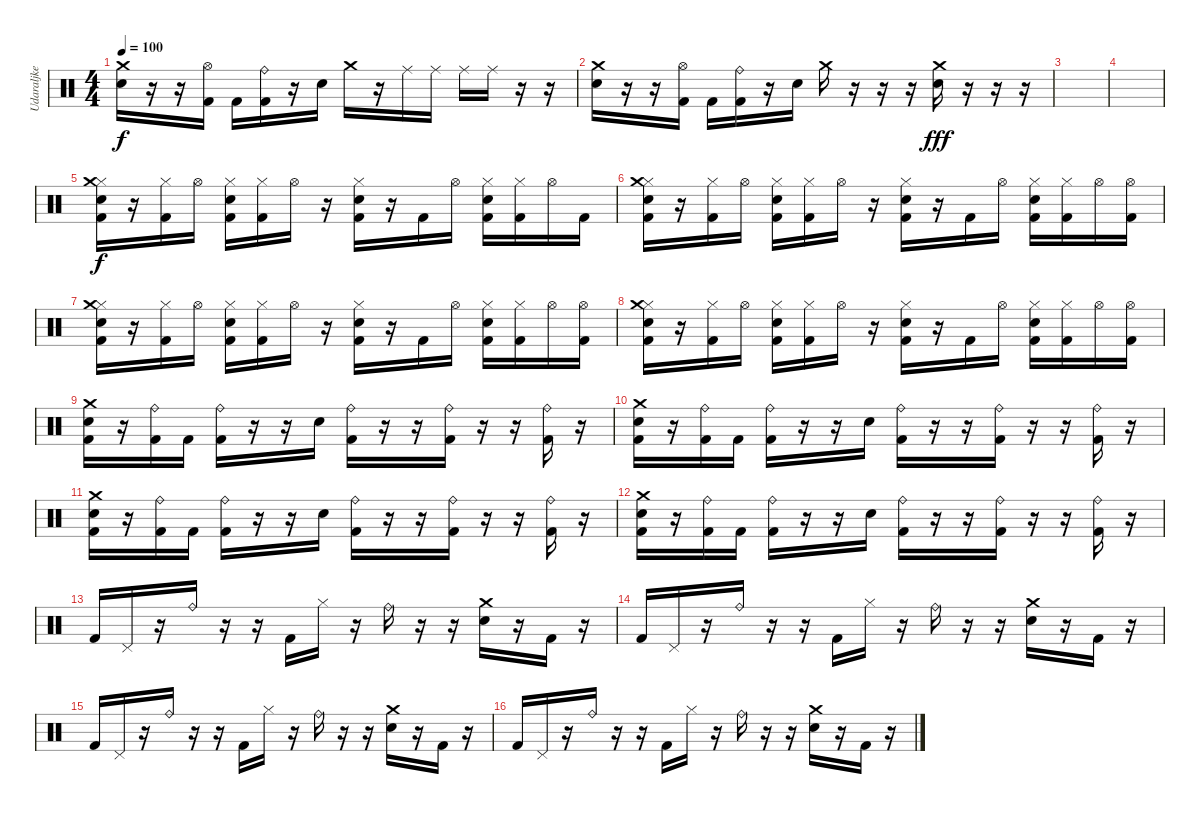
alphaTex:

\track ("Udaraljke" "Udaraljke") {instrument percussion}
\staff {score}
\articulation defaults
\ts (4 4)
\tempo 100
\clef neutral
\ks c
("Crash medium (hit)" "Snare (hit) 2").16{dy f} r.16 r.16 ("Hi-Hat (open)" "Kick (hit) 2").16 "Kick (hit) 2".16 ("Ride (bell)" "Kick (hit) 2").16 r.16 "Snare (hit) 2".16 "Crash medium (hit)".16 r.16 "Ride (middle)".16 "Ride (middle)".16 "Ride (middle)".16 "Ride (middle)".16 r.16 r.16 |
("Crash medium (hit)" "Snare (hit) 2").16 r.16 r.16 ("Hi-Hat (open)" "Kick (hit) 2").16 "Kick (hit) 2".16 ("Ride (bell)" "Kick (hit) 2").16 r.16 "Snare (hit) 2".16 "Crash medium (hit)".16 r.16 r.16 r.16 ("Crash medium (hit)" "Snare (hit) 2").16{dy fff} r.16 r.16 r.16 |
|
|
("Kick (hit) 2" "Snare (hit) 2" "Hi-Hat (closed)" "Crash medium (hit)").16{dy f} r.16 ("Kick (hit) 2" "Hi-Hat (closed)").16 "Hi-Hat (open)".16 ("Kick (hit) 2" "Snare (hit) 2" "Hi-Hat (closed)").16 ("Kick (hit) 2" "Hi-Hat (closed)").16 "Hi-Hat (open)".16 r.16 ("Kick (hit) 2" "Snare (hit) 2" "Hi-Hat (closed)").16 r.16 "Kick (hit) 2".16 "Hi-Hat (open)".16 ("Kick (hit) 2" "Snare (hit) 2" "Hi-Hat (closed)").16 ("Kick (hit) 2" "Hi-Hat (closed)").16 "Hi-Hat (open)".16 "Kick (hit) 2".16 |
("Kick (hit) 2" "Snare (hit) 2" "Hi-Hat (closed)" "Crash medium (hit)").16 r.16 ("Kick (hit) 2" "Hi-Hat (closed)").16 "Hi-Hat (open)".16 ("Kick (hit) 2" "Snare (hit) 2" "Hi-Hat (closed)").16 ("Kick (hit) 2" "Hi-Hat (closed)").16 "Hi-Hat (open)".16 r.16 ("Kick (hit) 2" "Snare (hit) 2" "Hi-Hat (closed)").16 r.16 "Kick (hit) 2".16 "Hi-Hat (open)".16 ("Kick (hit) 2" "Snare (hit) 2" "Hi-Hat (closed)").16 ("Kick (hit) 2" "Hi-Hat (closed)").16 "Hi-Hat (open)".16 ("Kick (hit) 2" "Hi-Hat (open)").16 |
("Kick (hit) 2" "Snare (hit) 2" "Hi-Hat (closed)" "Crash medium (hit)").16 r.16 ("Kick (hit) 2" "Hi-Hat (closed)").16 "Hi-Hat (open)".16 ("Kick (hit) 2" "Snare (hit) 2" "Hi-Hat (closed)").16 ("Kick (hit) 2" "Hi-Hat (closed)").16 "Hi-Hat (open)".16 r.16 ("Kick (hit) 2" "Snare (hit) 2" "Hi-Hat (closed)").16 r.16 "Kick (hit) 2".16 "Hi-Hat (open)".16 ("Kick (hit) 2" "Snare (hit) 2" "Hi-Hat (closed)").16 ("Kick (hit) 2" "Hi-Hat (closed)").16 "Hi-Hat (open)".16 ("Kick (hit) 2" "Hi-Hat (open)").16 |
("Kick (hit) 2" "Snare (hit) 2" "Hi-Hat (closed)" "Crash medium (hit)").16 r.16 ("Kick (hit) 2" "Hi-Hat (closed)").16 "Hi-Hat (open)".16 ("Kick (hit) 2" "Snare (hit) 2" "Hi-Hat (closed)").16 ("Kick (hit) 2" "Hi-Hat (closed)").16 "Hi-Hat (open)".16 r.16 ("Kick (hit) 2" "Snare (hit) 2" "Hi-Hat (closed)").16 r.16 "Kick (hit) 2".16 "Hi-Hat (open)".16 ("Kick (hit) 2" "Snare (hit) 2" "Hi-Hat (closed)").16 ("Kick (hit) 2" "Hi-Hat (closed)").16 "Hi-Hat (open)".16 ("Kick (hit) 2" "Hi-Hat (open)").16 |
("Snare (hit) 2" "Crash medium (hit)" "Kick (hit) 2").16 r.16 ("Ride (bell)" "Kick (hit) 2").16 "Kick (hit) 2".16 ("Ride (bell)" "Kick (hit) 2").16 r.16 r.16 "Snare (hit) 2".16 ("Ride (bell)" "Kick (hit) 2").16 r.16 r.16 ("Ride (bell)" "Kick (hit) 2").16 r.16 r.16 ("Ride (bell)" "Kick (hit) 2").16 r.16 |
("Snare (hit) 2" "Crash medium (hit)" "Kick (hit) 2").16 r.16 ("Ride (bell)" "Kick (hit) 2").16 "Kick (hit) 2".16 ("Ride (bell)" "Kick (hit) 2").16 r.16 r.16 "Snare (hit) 2".16 ("Ride (bell)" "Kick (hit) 2").16 r.16 r.16 ("Ride (bell)" "Kick (hit) 2").16 r.16 r.16 ("Ride (bell)" "Kick (hit) 2").16 r.16 |
("Snare (hit) 2" "Crash medium (hit)" "Kick (hit) 2").16 r.16 ("Ride (bell)" "Kick (hit) 2").16 "Kick (hit) 2".16 ("Ride (bell)" "Kick (hit) 2").16 r.16 r.16 "Snare (hit) 2".16 ("Ride (bell)" "Kick (hit) 2").16 r.16 r.16 ("Ride (bell)" "Kick (hit) 2").16 r.16 r.16 ("Ride (bell)" "Kick (hit) 2").16 r.16 |
("Snare (hit) 2" "Crash medium (hit)" "Kick (hit) 2").16 r.16 ("Ride (bell)" "Kick (hit) 2").16 "Kick (hit) 2".16 ("Ride (bell)" "Kick (hit) 2").16 r.16 r.16 "Snare (hit) 2".16 ("Ride (bell)" "Kick (hit) 2").16 r.16 r.16 ("Ride (bell)" "Kick (hit) 2").16 r.16 r.16 ("Ride (bell)" "Kick (hit) 2").16 r.16 |
"Kick (hit) 2".16 "Pedal Hi-Hat (hit)".16 r.16 "Ride (bell)".16 r.16 r.16 "Kick (hit) 2".16 "Hi-Hat (closed)".16 r.16 "Ride (bell)".16 r.16 r.16 ("Snare (hit) 2" "Crash medium (hit)").16 r.16 "Kick (hit) 2".16 r.16 |
"Kick (hit) 2".16 "Pedal Hi-Hat (hit)".16 r.16 "Ride (bell)".16 r.16 r.16 "Kick (hit) 2".16 "Hi-Hat (closed)".16 r.16 "Ride (bell)".16 r.16 r.16 ("Snare (hit) 2" "Crash medium (hit)").16 r.16 "Kick (hit) 2".16 r.16 |
"Kick (hit) 2".16 "Pedal Hi-Hat (hit)".16 r.16 "Ride (bell)".16 r.16 r.16 "Kick (hit) 2".16 "Hi-Hat (closed)".16 r.16 "Ride (bell)".16 r.16 r.16 ("Snare (hit) 2" "Crash medium (hit)").16 r.16 "Kick (hit) 2".16 r.16 |
"Kick (hit) 2".16 "Pedal Hi-Hat (hit)".16 r.16 "Ride (bell)".16 r.16 r.16 "Kick (hit) 2".16 "Hi-Hat (closed)".16 r.16 "Ride (bell)".16 r.16 r.16 ("Snare (hit) 2" "Crash medium (hit)").16 r.16 "Kick (hit) 2".16 r.16
